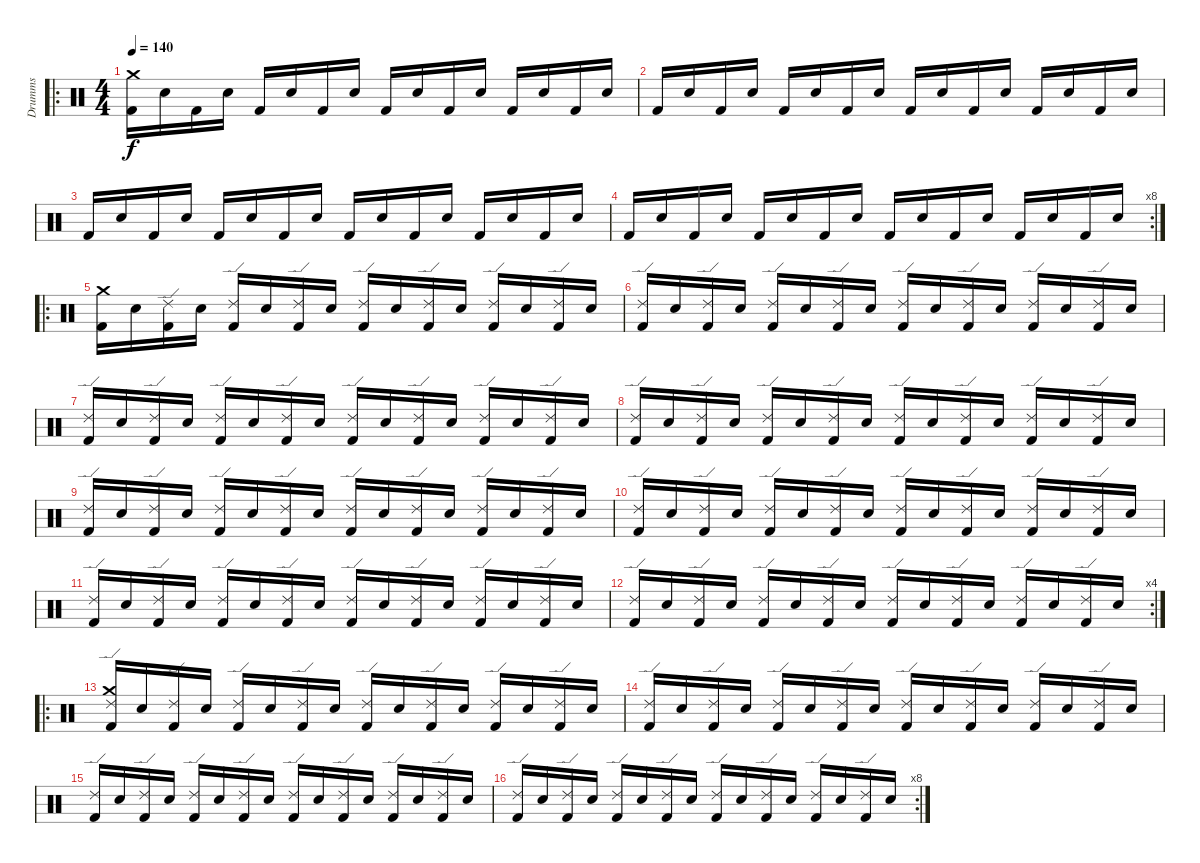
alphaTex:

\track ("Drumms" "Drumms") {instrument percussion}
\staff {score}
\articulation defaults
\ro
\ts (4 4)
\tempo 140
\clef neutral
\ks c
("Kick (hit) 2" "Crash medium (hit)").16{dy f} "Snare (hit) 2".16 "Kick (hit) 2".16 "Snare (hit) 2".16 "Kick (hit) 2".16 "Snare (hit) 2".16 "Kick (hit) 2".16 "Snare (hit) 2".16 "Kick (hit) 2".16 "Snare (hit) 2".16 "Kick (hit) 2".16 "Snare (hit) 2".16 "Kick (hit) 2".16 "Snare (hit) 2".16 "Kick (hit) 2".16 "Snare (hit) 2".16 |
"Kick (hit) 2".16 "Snare (hit) 2".16 "Kick (hit) 2".16 "Snare (hit) 2".16 "Kick (hit) 2".16 "Snare (hit) 2".16 "Kick (hit) 2".16 "Snare (hit) 2".16 "Kick (hit) 2".16 "Snare (hit) 2".16 "Kick (hit) 2".16 "Snare (hit) 2".16 "Kick (hit) 2".16 "Snare (hit) 2".16 "Kick (hit) 2".16 "Snare (hit) 2".16 |
"Kick (hit) 2".16 "Snare (hit) 2".16 "Kick (hit) 2".16 "Snare (hit) 2".16 "Kick (hit) 2".16 "Snare (hit) 2".16 "Kick (hit) 2".16 "Snare (hit) 2".16 "Kick (hit) 2".16 "Snare (hit) 2".16 "Kick (hit) 2".16 "Snare (hit) 2".16 "Kick (hit) 2".16 "Snare (hit) 2".16 "Kick (hit) 2".16 "Snare (hit) 2".16 |
\rc 8 "Kick (hit) 2".16 "Snare (hit) 2".16 "Kick (hit) 2".16 "Snare (hit) 2".16 "Kick (hit) 2".16 "Snare (hit) 2".16 "Kick (hit) 2".16 "Snare (hit) 2".16 "Kick (hit) 2".16 "Snare (hit) 2".16 "Kick (hit) 2".16 "Snare (hit) 2".16 "Kick (hit) 2".16 "Snare (hit) 2".16 "Kick (hit) 2".16 "Snare (hit) 2".16
|
\ro
("Kick (hit) 2" "Crash medium (hit)").16 "Snare (hit) 2".16 ("Kick (hit) 2" "Ride (edge) 2").16 "Snare (hit) 2".16 ("Kick (hit) 2" "Ride (edge) 2").16 "Snare (hit) 2".16 ("Kick (hit) 2" "Ride (edge) 2").16 "Snare (hit) 2".16 ("Kick (hit) 2" "Ride (edge) 2").16 "Snare (hit) 2".16 ("Kick (hit) 2" "Ride (edge) 2").16 "Snare (hit) 2".16 ("Kick (hit) 2" "Ride (edge) 2").16 "Snare (hit) 2".16 ("Kick (hit) 2" "Ride (edge) 2").16 "Snare (hit) 2".16 |
("Kick (hit) 2" "Ride (edge) 2").16 "Snare (hit) 2".16 ("Kick (hit) 2" "Ride (edge) 2").16 "Snare (hit) 2".16 ("Kick (hit) 2" "Ride (edge) 2").16 "Snare (hit) 2".16 ("Kick (hit) 2" "Ride (edge) 2").16 "Snare (hit) 2".16 ("Kick (hit) 2" "Ride (edge) 2").16 "Snare (hit) 2".16 ("Kick (hit) 2" "Ride (edge) 2").16 "Snare (hit) 2".16 ("Kick (hit) 2" "Ride (edge) 2").16 "Snare (hit) 2".16 ("Kick (hit) 2" "Ride (edge) 2").16 "Snare (hit) 2".16 |
("Kick (hit) 2" "Ride (edge) 2").16 "Snare (hit) 2".16 ("Kick (hit) 2" "Ride (edge) 2").16 "Snare (hit) 2".16 ("Kick (hit) 2" "Ride (edge) 2").16 "Snare (hit) 2".16 ("Kick (hit) 2" "Ride (edge) 2").16 "Snare (hit) 2".16 ("Kick (hit) 2" "Ride (edge) 2").16 "Snare (hit) 2".16 ("Kick (hit) 2" "Ride (edge) 2").16 "Snare (hit) 2".16 ("Kick (hit) 2" "Ride (edge) 2").16 "Snare (hit) 2".16 ("Kick (hit) 2" "Ride (edge) 2").16 "Snare (hit) 2".16 |
("Kick (hit) 2" "Ride (edge) 2").16 "Snare (hit) 2".16 ("Kick (hit) 2" "Ride (edge) 2").16 "Snare (hit) 2".16 ("Kick (hit) 2" "Ride (edge) 2").16 "Snare (hit) 2".16 ("Kick (hit) 2" "Ride (edge) 2").16 "Snare (hit) 2".16 ("Kick (hit) 2" "Ride (edge) 2").16 "Snare (hit) 2".16 ("Kick (hit) 2" "Ride (edge) 2").16 "Snare (hit) 2".16 ("Kick (hit) 2" "Ride (edge) 2").16 "Snare (hit) 2".16 ("Kick (hit) 2" "Ride (edge) 2").16 "Snare (hit) 2".16 |
("Kick (hit) 2" "Ride (edge) 2").16 "Snare (hit) 2".16 ("Kick (hit) 2" "Ride (edge) 2").16 "Snare (hit) 2".16 ("Kick (hit) 2" "Ride (edge) 2").16 "Snare (hit) 2".16 ("Kick (hit) 2" "Ride (edge) 2").16 "Snare (hit) 2".16 ("Kick (hit) 2" "Ride (edge) 2").16 "Snare (hit) 2".16 ("Kick (hit) 2" "Ride (edge) 2").16 "Snare (hit) 2".16 ("Kick (hit) 2" "Ride (edge) 2").16 "Snare (hit) 2".16 ("Kick (hit) 2" "Ride (edge) 2").16 "Snare (hit) 2".16 |
("Kick (hit) 2" "Ride (edge) 2").16 "Snare (hit) 2".16 ("Kick (hit) 2" "Ride (edge) 2").16 "Snare (hit) 2".16 ("Kick (hit) 2" "Ride (edge) 2").16 "Snare (hit) 2".16 ("Kick (hit) 2" "Ride (edge) 2").16 "Snare (hit) 2".16 ("Kick (hit) 2" "Ride (edge) 2").16 "Snare (hit) 2".16 ("Kick (hit) 2" "Ride (edge) 2").16 "Snare (hit) 2".16 ("Kick (hit) 2" "Ride (edge) 2").16 "Snare (hit) 2".16 ("Kick (hit) 2" "Ride (edge) 2").16 "Snare (hit) 2".16 |
("Kick (hit) 2" "Ride (edge) 2").16 "Snare (hit) 2".16 ("Kick (hit) 2" "Ride (edge) 2").16 "Snare (hit) 2".16 ("Kick (hit) 2" "Ride (edge) 2").16 "Snare (hit) 2".16 ("Kick (hit) 2" "Ride (edge) 2").16 "Snare (hit) 2".16 ("Kick (hit) 2" "Ride (edge) 2").16 "Snare (hit) 2".16 ("Kick (hit) 2" "Ride (edge) 2").16 "Snare (hit) 2".16 ("Kick (hit) 2" "Ride (edge) 2").16 "Snare (hit) 2".16 ("Kick (hit) 2" "Ride (edge) 2").16 "Snare (hit) 2".16 |
\rc 4
("Kick (hit) 2" "Ride (edge) 2").16 "Snare (hit) 2".16 ("Kick (hit) 2" "Ride (edge) 2").16 "Snare (hit) 2".16 ("Kick (hit) 2" "Ride (edge) 2").16 "Snare (hit) 2".16 ("Kick (hit) 2" "Ride (edge) 2").16 "Snare (hit) 2".16 ("Kick (hit) 2" "Ride (edge) 2").16 "Snare (hit) 2".16 ("Kick (hit) 2" "Ride (edge) 2").16 "Snare (hit) 2".16 ("Kick (hit) 2" "Ride (edge) 2").16 "Snare (hit) 2".16 ("Kick (hit) 2" "Ride (edge) 2").16 "Snare (hit) 2".16 |
\ro
("Kick (hit) 2" "Ride (edge) 2" "Crash medium (hit)").16 "Snare (hit) 2".16 ("Kick (hit) 2" "Ride (edge) 2").16 "Snare (hit) 2".16 ("Kick (hit) 2" "Ride (edge) 2").16 "Snare (hit) 2".16 ("Kick (hit) 2" "Ride (edge) 2").16 "Snare (hit) 2".16 ("Kick (hit) 2" "Ride (edge) 2").16 "Snare (hit) 2".16 ("Kick (hit) 2" "Ride (edge) 2").16 "Snare (hit) 2".16 ("Kick (hit) 2" "Ride (edge) 2").16 "Snare (hit) 2".16 ("Kick (hit) 2" "Ride (edge) 2").16 "Snare (hit) 2".16 |
("Kick (hit) 2" "Ride (edge) 2").16 "Snare (hit) 2".16 ("Kick (hit) 2" "Ride (edge) 2").16 "Snare (hit) 2".16 ("Kick (hit) 2" "Ride (edge) 2").16 "Snare (hit) 2".16 ("Kick (hit) 2" "Ride (edge) 2").16 "Snare (hit) 2".16 ("Kick (hit) 2" "Ride (edge) 2").16 "Snare (hit) 2".16 ("Kick (hit) 2" "Ride (edge) 2").16 "Snare (hit) 2".16 ("Kick (hit) 2" "Ride (edge) 2").16 "Snare (hit) 2".16 ("Kick (hit) 2" "Ride (edge) 2").16 "Snare (hit) 2".16 |
("Kick (hit) 2" "Ride (edge) 2").16 "Snare (hit) 2".16 ("Kick (hit) 2" "Ride (edge) 2").16 "Snare (hit) 2".16 ("Kick (hit) 2" "Ride (edge) 2").16 "Snare (hit) 2".16 ("Kick (hit) 2" "Ride (edge) 2").16 "Snare (hit) 2".16 ("Kick (hit) 2" "Ride (edge) 2").16 "Snare (hit) 2".16 ("Kick (hit) 2" "Ride (edge) 2").16 "Snare (hit) 2".16 ("Kick (hit) 2" "Ride (edge) 2").16 "Snare (hit) 2".16 ("Kick (hit) 2" "Ride (edge) 2").16 "Snare (hit) 2".16 |
\rc 8
("Kick (hit) 2" "Ride (edge) 2").16 "Snare (hit) 2".16 ("Kick (hit) 2" "Ride (edge) 2").16 "Snare (hit) 2".16 ("Kick (hit) 2" "Ride (edge) 2").16 "Snare (hit) 2".16 ("Kick (hit) 2" "Ride (edge) 2").16 "Snare (hit) 2".16 ("Kick (hit) 2" "Ride (edge) 2").16 "Snare (hit) 2".16 ("Kick (hit) 2" "Ride (edge) 2").16 "Snare (hit) 2".16 ("Kick (hit) 2" "Ride (edge) 2").16 "Snare (hit) 2".16 ("Kick (hit) 2" "Ride (edge) 2").16 "Snare (hit) 2".16
